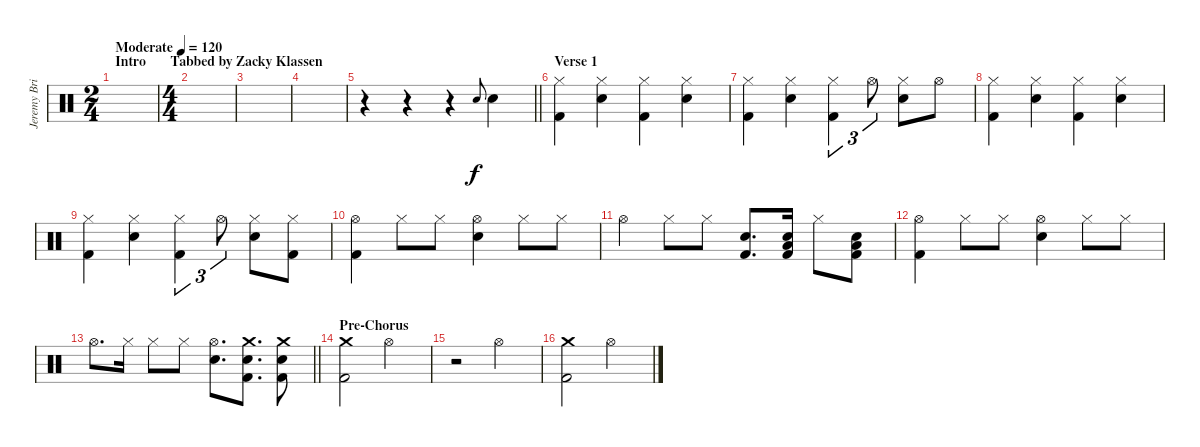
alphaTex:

\track ("Jeremy Brian [Drums]" "Jeremy Bri") {instrument percussion}
\staff {score}
\articulation defaults
\ts (2 4)
\section ("" "Intro       Tabbed by Zacky Klassen")
\tempo (120 "Moderate")
\clef neutral
\ks c
|
\ts (4 4)
|
|
|
\barLineRight lightlight
r.4 r.4 r.4 "Electric Snare (hit)".8{gr onbeat} "Electric Snare (hit)".4 |
\section ("" "Verse 1")
("Hi-Hat (closed)" "Kick (hit) 2").4 ("Hi-Hat (closed)" "Electric Snare (hit)").4 ("Hi-Hat (closed)" "Kick (hit) 2").4 ("Hi-Hat (closed)" "Electric Snare (hit)").4 |
("Hi-Hat (closed)" "Kick (hit) 2").4 ("Hi-Hat (closed)" "Electric Snare (hit)").4 ("Hi-Hat (closed)" "Kick (hit) 2").4{tu (3 2)} "Hi-Hat (open)".8{tu (3 2)} ("Hi-Hat (closed)" "Electric Snare (hit)").8 "Hi-Hat (open)".8 |
("Hi-Hat (closed)" "Kick (hit) 2").4 ("Hi-Hat (closed)" "Electric Snare (hit)").4 ("Hi-Hat (closed)" "Kick (hit) 2").4 ("Hi-Hat (closed)" "Electric Snare (hit)").4 |
("Hi-Hat (closed)" "Kick (hit) 2").4 ("Hi-Hat (closed)" "Electric Snare (hit)").4 ("Hi-Hat (closed)" "Kick (hit) 2").4{tu (3 2)} "Hi-Hat (open)".8{tu (3 2)} ("Hi-Hat (closed)" "Electric Snare (hit)").8 ("Hi-Hat (closed)" "Kick (hit) 2").8 |
("Hi-Hat (open)" "Kick (hit) 2").4 "Hi-Hat (closed)".8 "Hi-Hat (closed)".8 ("Hi-Hat (open)" "Electric Snare (hit)").4 "Hi-Hat (closed)".8 "Hi-Hat (closed)".8 |
"Hi-Hat (open)".4 "Hi-Hat (closed)".8 "Hi-Hat (closed)".8 ("Electric Snare (hit)" "Kick (hit) 2").8{d} ("Low Floor Tom (hit)" "Electric Snare (hit)" "Kick (hit) 2").16 "Hi-Hat (closed)".8 ("Low Floor Tom (hit)" "Electric Snare (hit)" "Kick (hit) 2").8 |
("Hi-Hat (open)" "Kick (hit) 2").4 "Hi-Hat (closed)".8 "Hi-Hat (closed)".8 ("Hi-Hat (open)" "Electric Snare (hit)").4 "Hi-Hat (closed)".8 "Hi-Hat (closed)".8 |
\barLineRight lightlight "Hi-Hat (open)".8{d} "Hi-Hat (closed)".16 "Hi-Hat (closed)".8 "Hi-Hat (closed)".8
("Hi-Hat (open)" "Electric Snare (hit)").8{d} ("Crash medium (hit)" "Electric Snare (hit)" "Kick (hit) 2").8{d} ("Crash medium (hit)" "Electric Snare (hit)" "Kick (hit) 2").8 |
\section ("" "Pre-Chorus")
("Crash medium (hit)" "Kick (hit) 2").2 "Hi-Hat (open)".2 |
r.2 "Hi-Hat (open)".2 |
("Crash medium (hit)" "Kick (hit) 2").2 "Hi-Hat (open)".2
